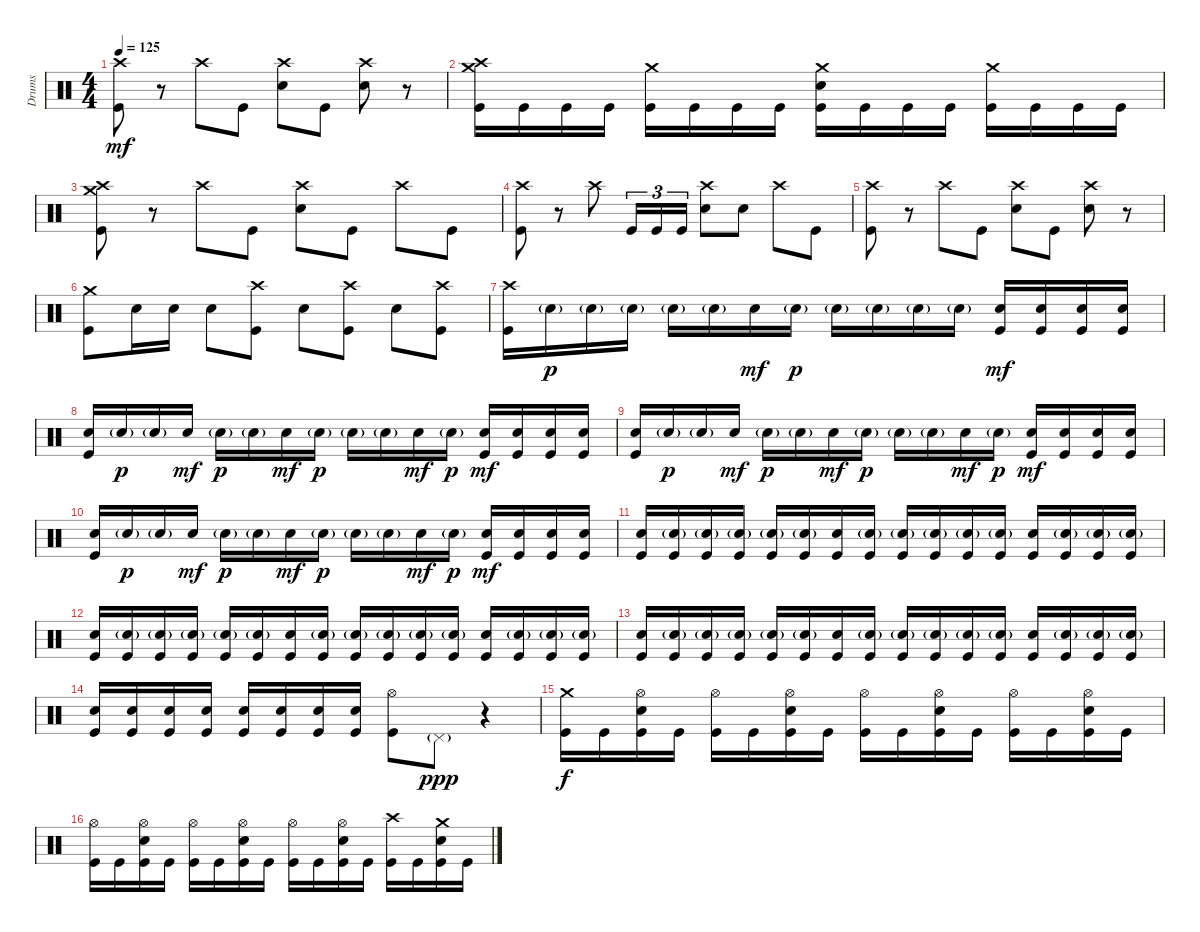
\track ("Drums" "Drums") {instrument percussion}
\staff {score}
\articulation defaults
\ts (4 4)
\tempo 125
\clef neutral
\ks c
("Crash high (hit)" "Kick (hit)").8{dy mf} r.8 "Crash high (hit)".8 "Kick (hit)".8 ("Crash high (hit)" "Electric Snare (hit)").8 "Kick (hit)".8 ("Crash high (hit)" "Electric Snare (hit)").8 r.8 |
("Crash medium (hit)" "Crash high (hit)" "Kick (hit)").16 "Kick (hit)".16 "Kick (hit)".16 "Kick (hit)".16 ("Crash medium (hit)" "Kick (hit)").16 "Kick (hit)".16 "Kick (hit)".16 "Kick (hit)".16 ("Crash medium (hit)" "Electric Snare (hit)" "Kick (hit)").16 "Kick (hit)".16 "Kick (hit)".16 "Kick (hit)".16 ("Crash medium (hit)" "Kick (hit)").16 "Kick (hit)".16 "Kick (hit)".16 "Kick (hit)".16 |
("Crash medium (hit)" "Crash high (hit)" "Kick (hit)").8 r.8 "Crash high (hit)".8 "Kick (hit)".8 ("Crash high (hit)" "Electric Snare (hit)").8 "Kick (hit)".8 "Crash high (hit)".8 "Kick (hit)".8 |
("Crash high (hit)" "Kick (hit)").8 r.8 "Crash high (hit)".8 "Kick (hit)".16{tu (3 2)} "Kick (hit)".16{tu (3 2)} "Kick (hit)".16{tu (3 2)} ("Crash high (hit)" "Electric Snare (hit)").8 "Electric Snare (hit)".8 "Crash high (hit)".8 "Kick (hit)".8 |
("Crash high (hit)" "Kick (hit)").8 r.8 "Crash high (hit)".8 "Kick (hit)".8 ("Crash high (hit)" "Electric Snare (hit)").8 "Kick (hit)".8 ("Crash high (hit)" "Electric Snare (hit)").8 r.8 |
("Crash medium (hit)" "Kick (hit)").8 "Electric Snare (hit)".16 "Electric Snare (hit)".16 "Electric Snare (hit)".8 ("Crash high (hit)" "Kick (hit)").8 "Electric Snare (hit)".8 ("Crash high (hit)" "Kick (hit)").8 "Electric Snare (hit)".8 ("Crash high (hit)" "Kick (hit)").8 |
("Crash high (hit)" "Kick (hit)").16 "Electric Snare (hit)"{g}.16{dy p} "Electric Snare (hit)"{g}.16 "Electric Snare (hit)"{g}.16 "Electric Snare (hit)"{g}.16 "Electric Snare (hit)"{g}.16 "Electric Snare (hit)".16{dy mf} "Electric Snare (hit)"{g}.16{dy p} "Electric Snare (hit)"{g}.16 "Electric Snare (hit)"{g}.16 "Electric Snare (hit)"{g}.16 "Electric Snare (hit)"{g}.16 ("Electric Snare (hit)" "Kick (hit)").16{dy mf} ("Electric Snare (hit)" "Kick (hit)").16 ("Electric Snare (hit)" "Kick (hit)").16 ("Electric Snare (hit)" "Kick (hit)").16 |
("Electric Snare (hit)" "Kick (hit)").16 "Electric Snare (hit)"{g}.16{dy p} "Electric Snare (hit)"{g}.16 "Electric Snare (hit)".16{dy mf} "Electric Snare (hit)"{g}.16{dy p} "Electric Snare (hit)"{g}.16 "Electric Snare (hit)".16{dy mf} "Electric Snare (hit)"{g}.16{dy p} "Electric Snare (hit)"{g}.16 "Electric Snare (hit)"{g}.16 "Electric Snare (hit)".16{dy mf} "Electric Snare (hit)"{g}.16{dy p} ("Electric Snare (hit)" "Kick (hit)").16{dy mf} ("Electric Snare (hit)" "Kick (hit)").16 ("Electric Snare (hit)" "Kick (hit)").16 ("Electric Snare (hit)" "Kick (hit)").16 |
("Electric Snare (hit)" "Kick (hit)").16 "Electric Snare (hit)"{g}.16{dy p} "Electric Snare (hit)"{g}.16 "Electric Snare (hit)".16{dy mf} "Electric Snare (hit)"{g}.16{dy p} "Electric Snare (hit)"{g}.16 "Electric Snare (hit)".16{dy mf} "Electric Snare (hit)"{g}.16{dy p} "Electric Snare (hit)"{g}.16 "Electric Snare (hit)"{g}.16 "Electric Snare (hit)".16{dy mf} "Electric Snare (hit)"{g}.16{dy p} ("Electric Snare (hit)" "Kick (hit)").16{dy mf} ("Electric Snare (hit)" "Kick (hit)").16 ("Electric Snare (hit)" "Kick (hit)").16 ("Electric Snare (hit)" "Kick (hit)").16 |
("Electric Snare (hit)" "Kick (hit)").16 "Electric Snare (hit)"{g}.16{dy p} "Electric Snare (hit)"{g}.16 "Electric Snare (hit)".16{dy mf} "Electric Snare (hit)"{g}.16{dy p} "Electric Snare (hit)"{g}.16 "Electric Snare (hit)".16{dy mf} "Electric Snare (hit)"{g}.16{dy p} "Electric Snare (hit)"{g}.16 "Electric Snare (hit)"{g}.16 "Electric Snare (hit)".16{dy mf} "Electric Snare (hit)"{g}.16{dy p} ("Electric Snare (hit)" "Kick (hit)").16{dy mf} ("Electric Snare (hit)" "Kick (hit)").16 ("Electric Snare (hit)" "Kick (hit)").16 ("Electric Snare (hit)" "Kick (hit)").16 |
("Electric Snare (hit)" "Kick (hit)").16 ("Electric Snare (hit)"{g} "Kick (hit)").16 ("Electric Snare (hit)"{g} "Kick (hit)").16 ("Electric Snare (hit)"{g} "Kick (hit)").16 ("Electric Snare (hit)"{g} "Kick (hit)").16 ("Electric Snare (hit)"{g} "Kick (hit)").16 ("Electric Snare (hit)" "Kick (hit)").16 ("Electric Snare (hit)"{g} "Kick (hit)").16 ("Electric Snare (hit)"{g} "Kick (hit)").16 ("Electric Snare (hit)"{g} "Kick (hit)").16 ("Electric Snare (hit)"{g} "Kick (hit)").16 ("Electric Snare (hit)"{g} "Kick (hit)").16 ("Electric Snare (hit)" "Kick (hit)").16 ("Electric Snare (hit)"{g} "Kick (hit)").16 ("Electric Snare (hit)"{g} "Kick (hit)").16 ("Electric Snare (hit)"{g} "Kick (hit)").16 |
("Electric Snare (hit)" "Kick (hit)").16 ("Electric Snare (hit)"{g} "Kick (hit)").16 ("Electric Snare (hit)"{g} "Kick (hit)").16 ("Electric Snare (hit)"{g} "Kick (hit)").16 ("Electric Snare (hit)"{g} "Kick (hit)").16 ("Electric Snare (hit)"{g} "Kick (hit)").16 ("Electric Snare (hit)" "Kick (hit)").16 ("Electric Snare (hit)"{g} "Kick (hit)").16 ("Electric Snare (hit)"{g} "Kick (hit)").16 ("Electric Snare (hit)"{g} "Kick (hit)").16 ("Electric Snare (hit)"{g} "Kick (hit)").16 ("Electric Snare (hit)"{g} "Kick (hit)").16 ("Electric Snare (hit)" "Kick (hit)").16 ("Electric Snare (hit)"{g} "Kick (hit)").16 ("Electric Snare (hit)"{g} "Kick (hit)").16 ("Electric Snare (hit)"{g} "Kick (hit)").16 |
("Electric Snare (hit)" "Kick (hit)").16 ("Electric Snare (hit)"{g} "Kick (hit)").16 ("Electric Snare (hit)"{g} "Kick (hit)").16 ("Electric Snare (hit)"{g} "Kick (hit)").16 ("Electric Snare (hit)"{g} "Kick (hit)").16 ("Electric Snare (hit)"{g} "Kick (hit)").16 ("Electric Snare (hit)" "Kick (hit)").16 ("Electric Snare (hit)"{g} "Kick (hit)").16 ("Electric Snare (hit)"{g} "Kick (hit)").16 ("Electric Snare (hit)"{g} "Kick (hit)").16 ("Electric Snare (hit)"{g} "Kick (hit)").16 ("Electric Snare (hit)"{g} "Kick (hit)").16 ("Electric Snare (hit)" "Kick (hit)").16 ("Electric Snare (hit)"{g} "Kick (hit)").16 ("Electric Snare (hit)"{g} "Kick (hit)").16 ("Electric Snare (hit)"{g} "Kick (hit)").16 |
("Electric Snare (hit)" "Kick (hit)").16 ("Electric Snare (hit)" "Kick (hit)").16 ("Electric Snare (hit)" "Kick (hit)").16 ("Electric Snare (hit)" "Kick (hit)").16 ("Electric Snare (hit)" "Kick (hit)").16 ("Electric Snare (hit)" "Kick (hit)").16 ("Electric Snare (hit)" "Kick (hit)").16 ("Electric Snare (hit)" "Kick (hit)").16 ("Hi-Hat (open)" "Kick (hit)").8 "Pedal Hi-Hat (hit)"{g}.8{dy ppp} r.4 |
("Crash medium (hit)" "Kick (hit)").16{dy f} "Kick (hit)".16 ("Hi-Hat (open)" "Electric Snare (hit)" "Kick (hit)").16 "Kick (hit)".16 ("Hi-Hat (open)" "Kick (hit)").16 "Kick (hit)".16 ("Hi-Hat (open)" "Electric Snare (hit)" "Kick (hit)").16 "Kick (hit)".16 ("Hi-Hat (open)" "Kick (hit)").16 "Kick (hit)".16 ("Hi-Hat (open)" "Electric Snare (hit)" "Kick (hit)").16 "Kick (hit)".16 ("Hi-Hat (open)" "Kick (hit)").16 "Kick (hit)".16 ("Hi-Hat (open)" "Electric Snare (hit)" "Kick (hit)").16 "Kick (hit)".16 |
("Hi-Hat (open)" "Kick (hit)").16 "Kick (hit)".16 ("Hi-Hat (open)" "Electric Snare (hit)" "Kick (hit)").16 "Kick (hit)".16 ("Hi-Hat (open)" "Kick (hit)").16 "Kick (hit)".16 ("Hi-Hat (open)" "Electric Snare (hit)" "Kick (hit)").16 "Kick (hit)".16 ("Hi-Hat (open)" "Kick (hit)").16 "Kick (hit)".16 ("Hi-Hat (open)" "Electric Snare (hit)" "Kick (hit)").16 "Kick (hit)".16 ("Crash high (hit)" "Kick (hit)").16 "Kick (hit)".16 ("Crash medium (hit)" "Electric Snare (hit)" "Kick (hit)").16 "Kick (hit)".16
